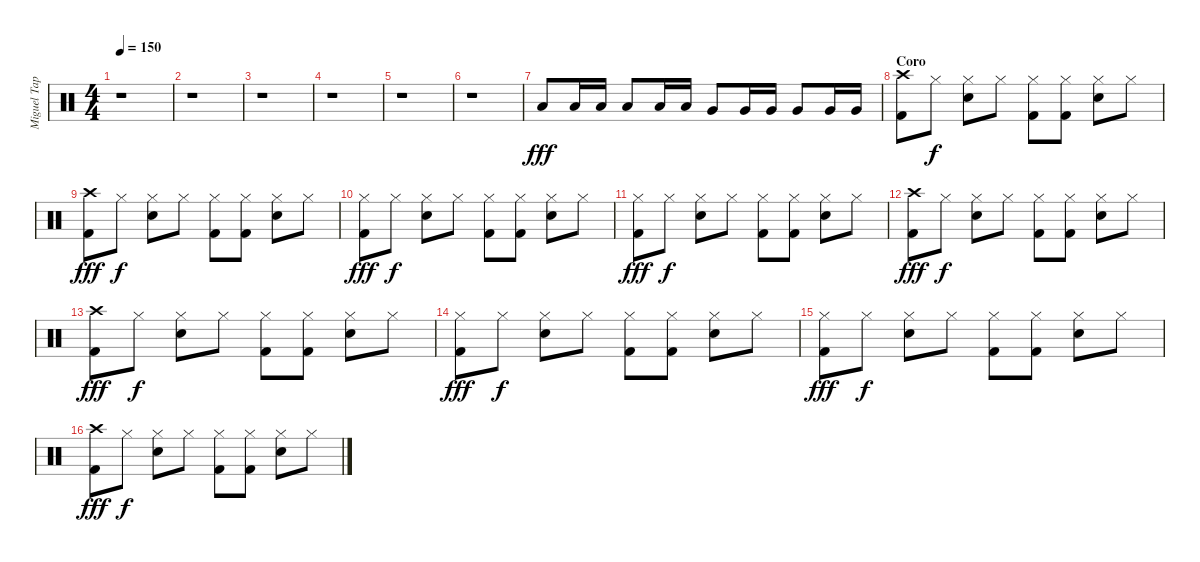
\track ("Miguel Tapia" "Miguel Tap") {instrument percussion}
\staff {score}
\articulation defaults
\ts (4 4)
\tempo 150
\clef neutral
\ks c
r.1{dy fff} |
r.1 |
r.1 |
r.1 |
r.1 |
r.1 |
\section ("" "")
"Low Tom (hit)".8 "Low Tom (hit)".16 "Low Tom (hit)".16 "Low Tom (hit)".8 "Low Tom (hit)".16 "Low Tom (hit)".16 "Very Low Tom (hit)".8 "Very Low Tom (hit)".16 "Very Low Tom (hit)".16 "Very Low Tom (hit)".8 "Very Low Tom (hit)".16 "Very Low Tom (hit)".16 |
\section ("" "Coro")
("Crash high (hit)" "Kick (hit) 2").8 "Hi-Hat (closed)".8{dy f} ("Hi-Hat (closed)" "Snare (hit) 2").8 "Hi-Hat (closed)".8 ("Hi-Hat (closed)" "Kick (hit) 2").8 ("Hi-Hat (closed)" "Kick (hit) 2").8 ("Hi-Hat (closed)" "Snare (hit) 2").8 "Hi-Hat (closed)".8 |
("Crash high (hit)" "Kick (hit) 2").8{dy fff} "Hi-Hat (closed)".8{dy f} ("Hi-Hat (closed)" "Snare (hit) 2").8 "Hi-Hat (closed)".8 ("Hi-Hat (closed)" "Kick (hit) 2").8 ("Hi-Hat (closed)" "Kick (hit) 2").8 ("Hi-Hat (closed)" "Snare (hit) 2").8 "Hi-Hat (closed)".8 |
("Hi-Hat (closed)" "Kick (hit) 2").8{dy fff} "Hi-Hat (closed)".8{dy f} ("Hi-Hat (closed)" "Snare (hit) 2").8 "Hi-Hat (closed)".8 ("Hi-Hat (closed)" "Kick (hit) 2").8 ("Hi-Hat (closed)" "Kick (hit) 2").8 ("Hi-Hat (closed)" "Snare (hit) 2").8 "Hi-Hat (closed)".8 |
("Hi-Hat (closed)" "Kick (hit) 2").8{dy fff} "Hi-Hat (closed)".8{dy f} ("Hi-Hat (closed)" "Snare (hit) 2").8 "Hi-Hat (closed)".8 ("Hi-Hat (closed)" "Kick (hit) 2").8 ("Hi-Hat (closed)" "Kick (hit) 2").8 ("Hi-Hat (closed)" "Snare (hit) 2").8 "Hi-Hat (closed)".8 |
("Crash high (hit)" "Kick (hit) 2").8{dy fff} "Hi-Hat (closed)".8{dy f} ("Hi-Hat (closed)" "Snare (hit) 2").8 "Hi-Hat (closed)".8 ("Hi-Hat (closed)" "Kick (hit) 2").8 ("Hi-Hat (closed)" "Kick (hit) 2").8 ("Hi-Hat (closed)" "Snare (hit) 2").8 "Hi-Hat (closed)".8 |
("Crash high (hit)" "Kick (hit) 2").8{dy fff} "Hi-Hat (closed)".8{dy f} ("Hi-Hat (closed)" "Snare (hit) 2").8 "Hi-Hat (closed)".8 ("Hi-Hat (closed)" "Kick (hit) 2").8 ("Hi-Hat (closed)" "Kick (hit) 2").8 ("Hi-Hat (closed)" "Snare (hit) 2").8 "Hi-Hat (closed)".8 |
("Hi-Hat (closed)" "Kick (hit) 2").8{dy fff} "Hi-Hat (closed)".8{dy f} ("Hi-Hat (closed)" "Snare (hit) 2").8 "Hi-Hat (closed)".8 ("Hi-Hat (closed)" "Kick (hit) 2").8 ("Hi-Hat (closed)" "Kick (hit) 2").8 ("Hi-Hat (closed)" "Snare (hit) 2").8 "Hi-Hat (closed)".8 |
("Hi-Hat (closed)" "Kick (hit) 2").8{dy fff} "Hi-Hat (closed)".8{dy f} ("Hi-Hat (closed)" "Snare (hit) 2").8 "Hi-Hat (closed)".8 ("Hi-Hat (closed)" "Kick (hit) 2").8 ("Hi-Hat (closed)" "Kick (hit) 2").8 ("Hi-Hat (closed)" "Snare (hit) 2").8 "Hi-Hat (closed)".8 |
("Crash high (hit)" "Kick (hit) 2").8{dy fff} "Hi-Hat (closed)".8{dy f} ("Hi-Hat (closed)" "Snare (hit) 2").8 "Hi-Hat (closed)".8 ("Hi-Hat (closed)" "Kick (hit) 2").8 ("Hi-Hat (closed)" "Kick (hit) 2").8 ("Hi-Hat (closed)" "Snare (hit) 2").8 "Hi-Hat (closed)".8
